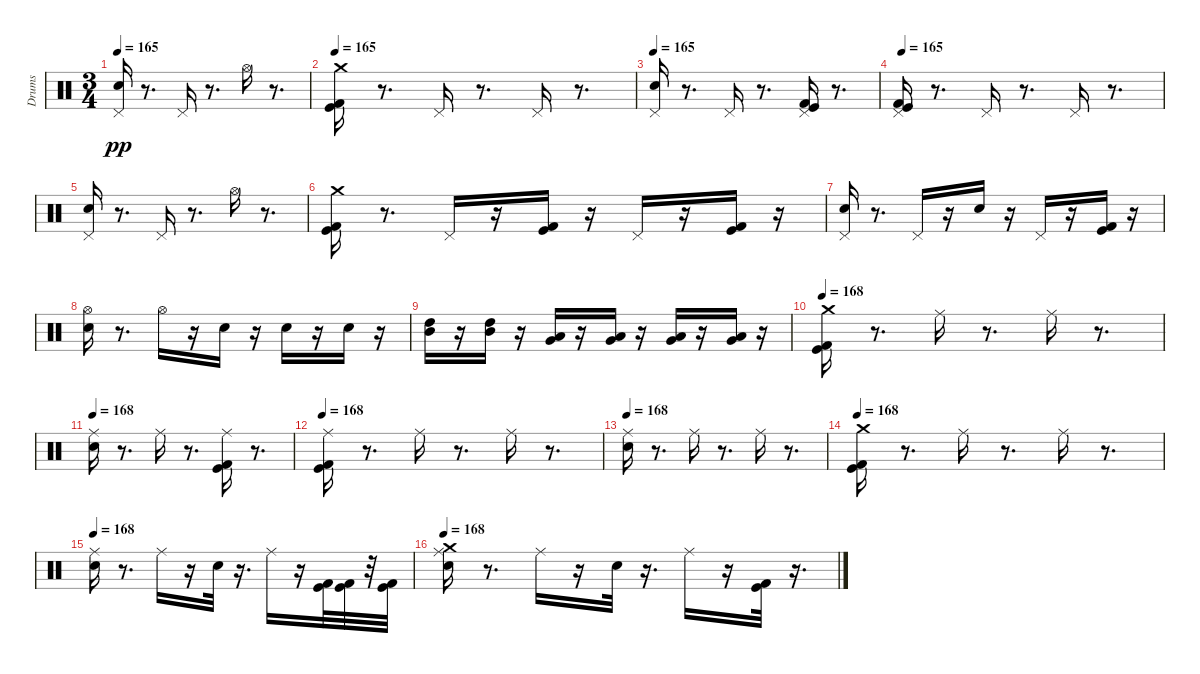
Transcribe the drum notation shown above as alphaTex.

\track ("Drums" "Drums") {instrument percussion}
\staff {score}
\articulation defaults
\ts (3 4)
\tempo 165
\clef neutral
\ks c
("Pedal Hi-Hat (hit)" "Snare (hit) 2").16{dy pp} r.8{d} "Pedal Hi-Hat (hit)".16 r.8{d} "Hi-Hat (open)".16 r.8{d} |
\tempo 165
("Crash medium (hit)" "Kick (hit) 2" "Kick (hit)").16 r.8{d} "Pedal Hi-Hat (hit)".16 r.8{d} "Pedal Hi-Hat (hit)".16 r.8{d} |
\tempo 165
("Pedal Hi-Hat (hit)" "Snare (hit) 2").16 r.8{d} "Pedal Hi-Hat (hit)".16 r.8{d} ("Pedal Hi-Hat (hit)" "Kick (hit) 2" "Kick (hit)").16 r.8{d} |
\tempo 165
("Pedal Hi-Hat (hit)" "Kick (hit) 2" "Kick (hit)").16 r.8{d} "Pedal Hi-Hat (hit)".16 r.8{d} "Pedal Hi-Hat (hit)".16 r.8{d} |
("Pedal Hi-Hat (hit)" "Snare (hit) 2").16 r.8{d} "Pedal Hi-Hat (hit)".16 r.8{d} "Hi-Hat (open)".16 r.8{d} |
("Crash medium (hit)" "Kick (hit) 2" "Kick (hit)").16 r.8{d} "Pedal Hi-Hat (hit)".16 r.16 ("Kick (hit) 2" "Kick (hit)").16 r.16 "Pedal Hi-Hat (hit)".16 r.16 ("Kick (hit) 2" "Kick (hit)").16 r.16 |
("Pedal Hi-Hat (hit)" "Snare (hit) 2").16 r.8{d} "Pedal Hi-Hat (hit)".16 r.16 "Snare (hit) 2".16 r.16 "Pedal Hi-Hat (hit)".16 r.16 ("Kick (hit) 2" "Kick (hit)").16 r.16 |
("Snare (hit) 2" "Hi-Hat (open)").16 r.8{d} "Hi-Hat (open)".16 r.16 "Snare (hit) 2".16 r.16 "Snare (hit) 2".16 r.16 "Snare (hit) 2".16 r.16 |
("Mid Tom (hit)" "High Tom (hit)").16 r.16 ("Mid Tom (hit)" "High Tom (hit)").16 r.16 ("Very Low Tom (hit)" "Low Tom (hit)").16 r.16 ("Very Low Tom (hit)" "Low Tom (hit)").16 r.16 ("Very Low Tom (hit)" "Low Floor Tom (hit)").16 r.16 ("Very Low Tom (hit)" "Low Floor Tom (hit)").16 r.16 |
\tempo 168
("Crash medium (hit)" "Kick (hit) 2" "Kick (hit)").16 r.8{d} "Ride (middle)".16 r.8{d} "Ride (middle)".16 r.8{d} |
\tempo 168
("Ride (middle)" "Snare (hit) 2").16 r.8{d} "Ride (middle)".16 r.8{d} ("Ride (middle)" "Kick (hit) 2" "Kick (hit)").16 r.8{d} |
\tempo 168
("Ride (middle)" "Kick (hit) 2" "Kick (hit)").16 r.8{d} "Ride (middle)".16 r.8{d} "Ride (middle)".16 r.8{d} |
\tempo 168
("Ride (middle)" "Snare (hit) 2").16 r.8{d} "Ride (middle)".16 r.8{d} "Ride (middle)".16 r.8{d} |
\tempo 168
("Crash medium (hit)" "Kick (hit) 2" "Kick (hit)").16 r.8{d} "Ride (middle)".16 r.8{d} "Ride (middle)".16 r.8{d} |
\tempo 168
("Ride (middle)" "Snare (hit) 2").16 r.8{d} "Ride (middle)".16 r.16 "Snare (hit) 2".32 r.16{d} "Ride (middle)".16 r.16 ("Kick (hit) 2" "Kick (hit)").32 ("Kick (hit) 2" "Kick (hit)").32 r.32 ("Kick (hit) 2" "Kick (hit)").32 |
\tempo 168
("Ride (middle)" "Crash medium (hit)" "Snare (hit) 2").16 r.8{d} "Ride (middle)".16 r.16 "Snare (hit) 2".32 r.16{d} "Ride (middle)".16 r.16 ("Kick (hit) 2" "Kick (hit)").32 r.16{d}
